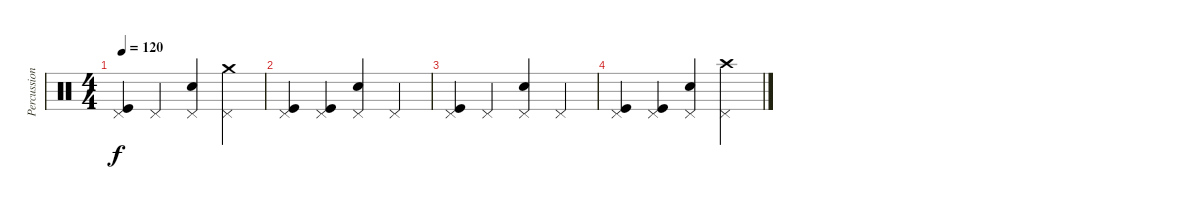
\track ("Percussions" "Percussion") {instrument percussion}
\staff {score}
\articulation defaults
\ts (4 4)
\tempo 120
\clef neutral
\ks c
("Kick (hit)" "Pedal Hi-Hat (hit)").4{dy f} "Pedal Hi-Hat (hit)".4 ("Electric Snare (hit)" "Pedal Hi-Hat (hit)").4 ("Pedal Hi-Hat (hit)" "Crash medium (hit)").4 |
("Kick (hit)" "Pedal Hi-Hat (hit)").4 ("Kick (hit)" "Pedal Hi-Hat (hit)").4 ("Electric Snare (hit)" "Pedal Hi-Hat (hit)").4 "Pedal Hi-Hat (hit)".4 |
("Kick (hit)" "Pedal Hi-Hat (hit)").4 "Pedal Hi-Hat (hit)".4 ("Electric Snare (hit)" "Pedal Hi-Hat (hit)").4 "Pedal Hi-Hat (hit)".4 |
("Kick (hit)" "Pedal Hi-Hat (hit)").4 ("Kick (hit)" "Pedal Hi-Hat (hit)").4 ("Electric Snare (hit)" "Pedal Hi-Hat (hit)").4 ("Pedal Hi-Hat (hit)" "Crash high (hit)").4
